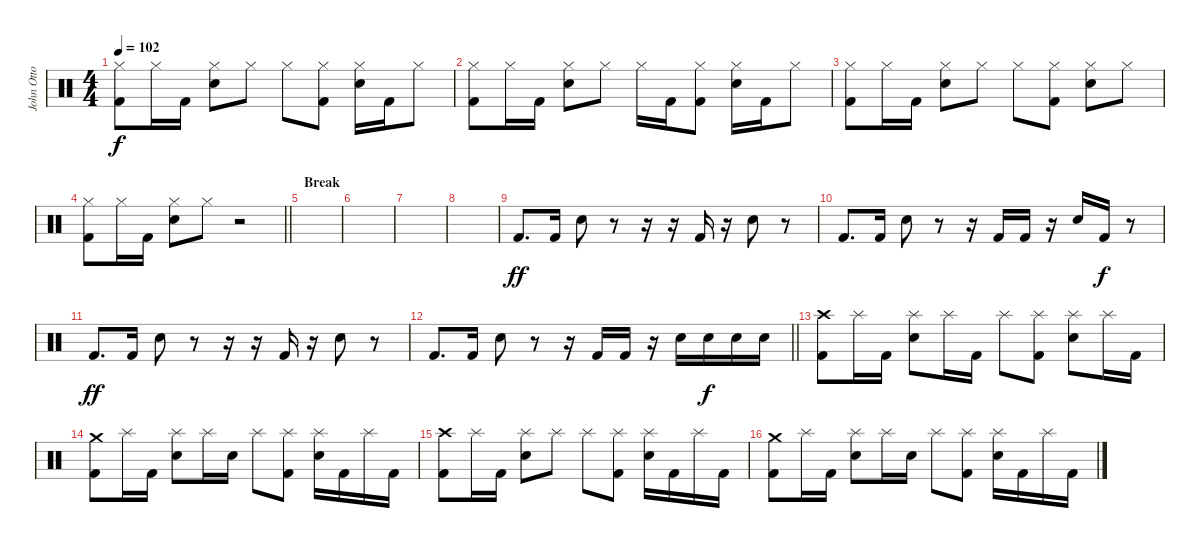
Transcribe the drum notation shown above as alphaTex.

\track ("John Otto (Drums)" "John Otto ") {instrument percussion}
\staff {score}
\articulation defaults
\ts (4 4)
\tempo 102
\clef neutral
\ks c
("Hi-Hat (closed)" "Kick (hit) 2").8{dy f} "Hi-Hat (closed)".16 "Kick (hit) 2".16 ("Hi-Hat (closed)" "Snare (hit) 2").8 "Hi-Hat (closed)".8 "Hi-Hat (closed)".8 ("Hi-Hat (closed)" "Kick (hit) 2").8 ("Hi-Hat (closed)" "Snare (hit) 2").16 "Kick (hit) 2".16 "Hi-Hat (closed)".8 |
("Hi-Hat (closed)" "Kick (hit) 2").8 "Hi-Hat (closed)".16 "Kick (hit) 2".16 ("Hi-Hat (closed)" "Snare (hit) 2").8 "Hi-Hat (closed)".8 "Hi-Hat (closed)".16 "Kick (hit) 2".16 ("Hi-Hat (closed)" "Kick (hit) 2").8 ("Hi-Hat (closed)" "Snare (hit) 2").16 "Kick (hit) 2".16 "Hi-Hat (closed)".8 |
("Hi-Hat (closed)" "Kick (hit) 2").8 "Hi-Hat (closed)".16 "Kick (hit) 2".16 ("Hi-Hat (closed)" "Snare (hit) 2").8 "Hi-Hat (closed)".8 "Hi-Hat (closed)".8 ("Hi-Hat (closed)" "Kick (hit) 2").8 ("Hi-Hat (closed)" "Snare (hit) 2").8 "Hi-Hat (closed)".8 |
\barLineRight lightlight
("Hi-Hat (closed)" "Kick (hit) 2").8 "Hi-Hat (closed)".16 "Kick (hit) 2".16 ("Hi-Hat (closed)" "Snare (hit) 2").8 "Hi-Hat (closed)".8 r.2 |
\section ("" "Break")
|
|
|
|
"Kick (hit) 2".8{d dy ff} "Kick (hit) 2".16 "Snare (hit) 2".8 r.8 r.16 r.16 "Kick (hit) 2".16 r.16 "Snare (hit) 2".8 r.8 |
"Kick (hit) 2".8{d} "Kick (hit) 2".16 "Snare (hit) 2".8 r.8 r.16 "Kick (hit) 2".16 "Kick (hit) 2".16 r.16 "Snare (hit) 2".16 "Kick (hit) 2".16{dy f} r.8 |
"Kick (hit) 2".8{d dy ff} "Kick (hit) 2".16 "Snare (hit) 2".8 r.8 r.16 r.16 "Kick (hit) 2".16 r.16 "Snare (hit) 2".8 r.8 |
\barLineRight lightlight "Kick (hit) 2".8{d} "Kick (hit) 2".16 "Snare (hit) 2".8
r.8 r.16 "Kick (hit) 2".16 "Kick (hit) 2".16 r.16 "Snare (hit) 2".16 "Snare (hit) 2".16{dy f} "Snare (hit) 2".16 "Snare (hit) 2".16 |
("Crash high (hit)" "Kick (hit) 2").8 "Splash (hit)".16 "Kick (hit) 2".16 ("Splash (hit)" "Snare (hit) 2").8 "Splash (hit)".16 "Kick (hit) 2".16 "Splash (hit)".8 ("Splash (hit)" "Kick (hit) 2").8 ("Splash (hit)" "Snare (hit) 2").8 "Splash (hit)".16 "Kick (hit) 2".16 |
("Crash medium (hit)" "Kick (hit) 2").8 "Splash (hit)".16 "Kick (hit) 2".16 ("Splash (hit)" "Snare (hit) 2").8 "Splash (hit)".16 "Snare (hit) 2".16 "Splash (hit)".8 ("Splash (hit)" "Kick (hit) 2").8 ("Splash (hit)" "Snare (hit) 2").16 "Kick (hit) 2".16 "Splash (hit)".16 "Kick (hit) 2".16 |
("Crash high (hit)" "Kick (hit) 2").8 "Splash (hit)".16 "Kick (hit) 2".16 ("Splash (hit)" "Snare (hit) 2").8 "Splash (hit)".8 "Splash (hit)".8 ("Splash (hit)" "Kick (hit) 2").8 ("Splash (hit)" "Snare (hit) 2").16 "Kick (hit) 2".16 "Splash (hit)".16 "Kick (hit) 2".16 |
("Crash medium (hit)" "Kick (hit) 2").8 "Splash (hit)".16 "Kick (hit) 2".16 ("Splash (hit)" "Snare (hit) 2").8 "Splash (hit)".16 "Snare (hit) 2".16 "Splash (hit)".8 ("Splash (hit)" "Kick (hit) 2").8 ("Splash (hit)" "Snare (hit) 2").16 "Kick (hit) 2".16 "Splash (hit)".16 "Kick (hit) 2".16
